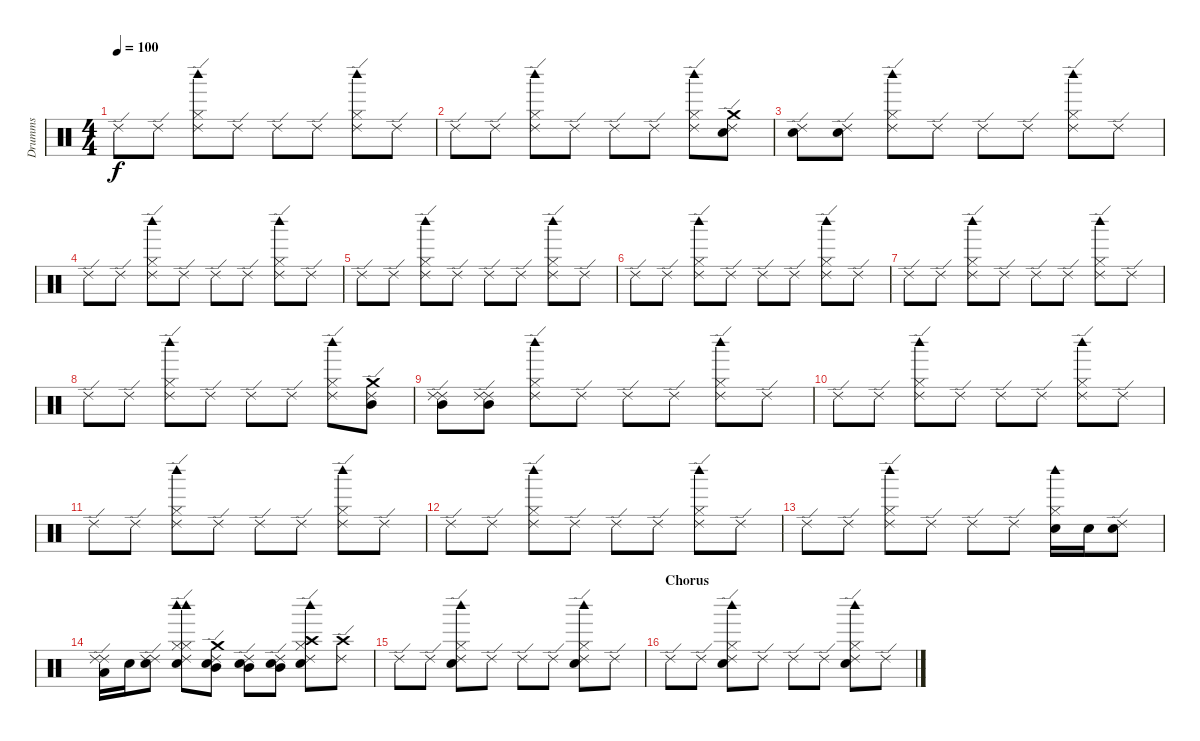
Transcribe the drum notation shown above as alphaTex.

\track ("Drumms" "Drumms") {instrument percussion}
\staff {score}
\articulation defaults
\ts (4 4)
\tempo 100
\clef neutral
\ks c "Ride (edge) 2".8{dy f} "Ride (edge) 2".8
("Ride (edge) 2" "Hi-Hat (closed)" "Woodblock high (hit)").8 "Ride (edge) 2".8 "Ride (edge) 2".8 "Ride (edge) 2".8 ("Ride (edge) 2" "Hi-Hat (closed)" "Woodblock high (hit)").8 "Ride (edge) 2".8 |
"Ride (edge) 2".8 "Ride (edge) 2".8 ("Ride (edge) 2" "Hi-Hat (closed)" "Woodblock high (hit)").8 "Ride (edge) 2".8 "Ride (edge) 2".8 "Ride (edge) 2".8 ("Ride (edge) 2" "Hi-Hat (closed)" "Woodblock high (hit)").8 ("Snare (hit) 2" "Crash medium (hit)" "Ride (edge) 2").8 |
("Snare (hit) 2" "Ride (edge) 2").8 ("Snare (hit) 2" "Ride (edge) 2").8 ("Ride (edge) 2" "Hi-Hat (closed)" "Woodblock high (hit)").8 "Ride (edge) 2".8 "Ride (edge) 2".8 "Ride (edge) 2".8 ("Ride (edge) 2" "Hi-Hat (closed)" "Woodblock high (hit)").8 "Ride (edge) 2".8 |
"Ride (edge) 2".8 "Ride (edge) 2".8 ("Ride (edge) 2" "Hi-Hat (closed)" "Woodblock high (hit)").8 "Ride (edge) 2".8 "Ride (edge) 2".8 "Ride (edge) 2".8 ("Ride (edge) 2" "Hi-Hat (closed)" "Woodblock high (hit)").8 "Ride (edge) 2".8 |
"Ride (edge) 2".8 "Ride (edge) 2".8 ("Ride (edge) 2" "Hi-Hat (closed)" "Woodblock high (hit)").8 "Ride (edge) 2".8 "Ride (edge) 2".8 "Ride (edge) 2".8 ("Ride (edge) 2" "Hi-Hat (closed)" "Woodblock high (hit)").8 "Ride (edge) 2".8 |
"Ride (edge) 2".8 "Ride (edge) 2".8 ("Ride (edge) 2" "Hi-Hat (closed)" "Woodblock high (hit)").8 "Ride (edge) 2".8 "Ride (edge) 2".8 "Ride (edge) 2".8 ("Ride (edge) 2" "Hi-Hat (closed)" "Woodblock high (hit)").8 "Ride (edge) 2".8 |
"Ride (edge) 2".8 "Ride (edge) 2".8 ("Ride (edge) 2" "Hi-Hat (closed)" "Woodblock high (hit)").8 "Ride (edge) 2".8 "Ride (edge) 2".8 "Ride (edge) 2".8 ("Ride (edge) 2" "Hi-Hat (closed)" "Woodblock high (hit)").8 "Ride (edge) 2".8 |
"Ride (edge) 2".8 "Ride (edge) 2".8 ("Ride (edge) 2" "Hi-Hat (closed)" "Woodblock high (hit)").8 "Ride (edge) 2".8 "Ride (edge) 2".8 "Ride (edge) 2".8 ("Ride (edge) 2" "Hi-Hat (closed)" "Woodblock high (hit)").8 ("Mid Tom (hit)" "Crash medium (hit)" "Ride (edge) 2").8 |
("Mid Tom (hit)" "Ride (edge) 2" "Ride (edge) 2").8 ("Mid Tom (hit)" "Ride (edge) 2" "Ride (edge) 2").8 ("Ride (edge) 2" "Hi-Hat (closed)" "Woodblock high (hit)").8 "Ride (edge) 2".8 "Ride (edge) 2".8 "Ride (edge) 2".8 ("Ride (edge) 2" "Hi-Hat (closed)" "Woodblock high (hit)").8 "Ride (edge) 2".8 |
"Ride (edge) 2".8 "Ride (edge) 2".8 ("Ride (edge) 2" "Hi-Hat (closed)" "Woodblock high (hit)").8 "Ride (edge) 2".8 "Ride (edge) 2".8 "Ride (edge) 2".8 ("Ride (edge) 2" "Hi-Hat (closed)" "Woodblock high (hit)").8 "Ride (edge) 2".8 |
"Ride (edge) 2".8 "Ride (edge) 2".8 ("Ride (edge) 2" "Hi-Hat (closed)" "Woodblock high (hit)").8 "Ride (edge) 2".8 "Ride (edge) 2".8 "Ride (edge) 2".8 ("Ride (edge) 2" "Hi-Hat (closed)" "Woodblock high (hit)").8 "Ride (edge) 2".8 |
"Ride (edge) 2".8 "Ride (edge) 2".8 ("Ride (edge) 2" "Hi-Hat (closed)" "Woodblock high (hit)").8 "Ride (edge) 2".8 "Ride (edge) 2".8 "Ride (edge) 2".8 ("Ride (edge) 2" "Hi-Hat (closed)" "Woodblock high (hit)").8 "Ride (edge) 2".8 |
"Ride (edge) 2".8 "Ride (edge) 2".8 ("Ride (edge) 2" "Hi-Hat (closed)" "Woodblock high (hit)").8 "Ride (edge) 2".8 "Ride (edge) 2".8 "Ride (edge) 2".8 ("Snare (hit) 2" "Hi-Hat (closed)" "Woodblock high (hit)").16 "Snare (hit) 2".16 ("Electric Snare (hit)" "Ride (edge) 2").8 |
("Low Tom (hit)" "Ride (edge) 2" "Ride (edge) 2").16 "Snare (hit) 2".16 ("Snare (hit) 2" "Ride (edge) 2" "Ride (edge) 2").8 ("Snare (hit) 2" "Ride (edge) 2" "Hi-Hat (closed)" "Woodblock high (hit)" "Hi-Hat (closed)" "Woodblock high (hit)").8 ("Snare (hit) 2" "Mid Tom (hit)" "Crash medium (hit)" "Ride (edge) 2").8 ("Electric Snare (hit)" "Mid Tom (hit)" "Ride (edge) 2").8 ("Electric Snare (hit)" "Mid Tom (hit)" "Ride (edge) 2").8 ("Electric Snare (hit)" "Crash high (hit)" "Ride (edge) 2" "Hi-Hat (closed)" "Woodblock high (hit)").8 ("Crash high (hit)" "Ride (edge) 2").8 |
"Ride (edge) 2".8 "Ride (edge) 2".8 ("Electric Snare (hit)" "Ride (edge) 2" "Hi-Hat (closed)" "Woodblock high (hit)").8 "Ride (edge) 2".8 "Ride (edge) 2".8 "Ride (edge) 2".8 ("Electric Snare (hit)" "Ride (edge) 2" "Hi-Hat (closed)" "Woodblock high (hit)").8 "Ride (edge) 2".8 |
\section ("" "Chorus")
"Ride (edge) 2".8 "Ride (edge) 2".8 ("Electric Snare (hit)" "Ride (edge) 2" "Hi-Hat (closed)" "Woodblock high (hit)").8 "Ride (edge) 2".8 "Ride (edge) 2".8 "Ride (edge) 2".8 ("Electric Snare (hit)" "Ride (edge) 2" "Hi-Hat (closed)" "Woodblock high (hit)").8 "Ride (edge) 2".8
